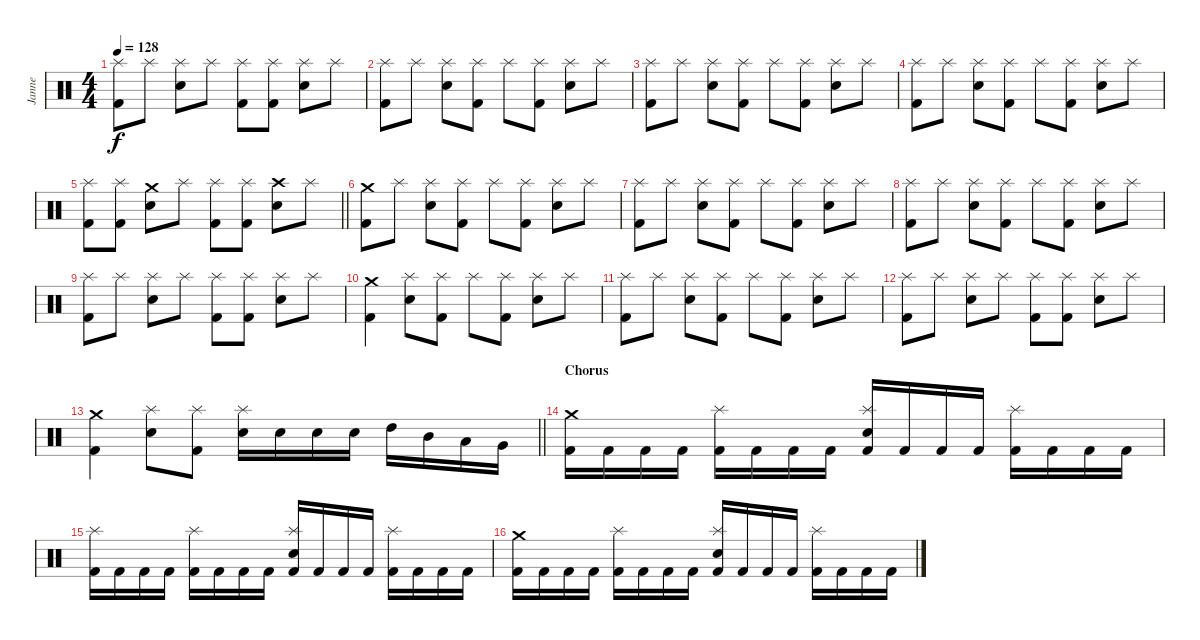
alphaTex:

\track ("Janne" "Janne") {instrument percussion}
\staff {score}
\articulation defaults
\ts (4 4)
\tempo 128
\clef neutral
\ks c
("Kick (hit) 2" "Splash (hit)").8{dy f} "Splash (hit)".8 ("Snare (hit) 2" "Splash (hit)").8 "Splash (hit)".8 ("Kick (hit) 2" "Splash (hit)").8 ("Kick (hit) 2" "Splash (hit)").8 ("Snare (hit) 2" "Splash (hit)").8 "Splash (hit)".8 |
("Kick (hit) 2" "Splash (hit)").8 "Splash (hit)".8 ("Snare (hit) 2" "Splash (hit)").8 ("Kick (hit) 2" "Splash (hit)").8 "Splash (hit)".8 ("Kick (hit) 2" "Splash (hit)").8 ("Snare (hit) 2" "Splash (hit)").8 "Splash (hit)".8 |
("Kick (hit) 2" "Splash (hit)").8 "Splash (hit)".8 ("Snare (hit) 2" "Splash (hit)").8 ("Kick (hit) 2" "Splash (hit)").8 "Splash (hit)".8 ("Kick (hit) 2" "Splash (hit)").8 ("Snare (hit) 2" "Splash (hit)").8 "Splash (hit)".8 |
("Kick (hit) 2" "Splash (hit)").8 "Splash (hit)".8 ("Snare (hit) 2" "Splash (hit)").8 ("Kick (hit) 2" "Splash (hit)").8 "Splash (hit)".8 ("Kick (hit) 2" "Splash (hit)").8 ("Snare (hit) 2" "Splash (hit)").8 "Splash (hit)".8 |
\barLineRight lightlight
("Kick (hit) 2" "Splash (hit)").8 ("Kick (hit) 2" "Splash (hit)").8 ("Snare (hit) 2" "Crash medium (hit)").8 "Splash (hit)".8 ("Kick (hit) 2" "Splash (hit)").8 ("Kick (hit) 2" "Splash (hit)").8 ("Snare (hit) 2" "Crash high (hit)").8 "Splash (hit)".8 |
\section ("" "")
("Kick (hit) 2" "Crash medium (hit)").8 "Splash (hit)".8 ("Snare (hit) 2" "Splash (hit)").8 ("Kick (hit) 2" "Splash (hit)").8 "Splash (hit)".8 ("Kick (hit) 2" "Splash (hit)").8 ("Snare (hit) 2" "Splash (hit)").8 "Splash (hit)".8 |
("Kick (hit) 2" "Splash (hit)").8 "Splash (hit)".8 ("Snare (hit) 2" "Splash (hit)").8 ("Kick (hit) 2" "Splash (hit)").8 "Splash (hit)".8 ("Kick (hit) 2" "Splash (hit)").8 ("Snare (hit) 2" "Splash (hit)").8 "Splash (hit)".8 |
("Kick (hit) 2" "Splash (hit)").8 "Splash (hit)".8 ("Snare (hit) 2" "Splash (hit)").8 ("Kick (hit) 2" "Splash (hit)").8 "Splash (hit)".8 ("Kick (hit) 2" "Splash (hit)").8 ("Snare (hit) 2" "Splash (hit)").8 "Splash (hit)".8 |
("Kick (hit) 2" "Splash (hit)").8 "Splash (hit)".8 ("Snare (hit) 2" "Splash (hit)").8 "Splash (hit)".8 ("Kick (hit) 2" "Splash (hit)").8 ("Kick (hit) 2" "Splash (hit)").8 ("Snare (hit) 2" "Splash (hit)").8 "Splash (hit)".8 |
("Kick (hit) 2" "Crash medium (hit)").4 ("Snare (hit) 2" "Splash (hit)").8 ("Kick (hit) 2" "Splash (hit)").8 "Splash (hit)".8 ("Kick (hit) 2" "Splash (hit)").8 ("Snare (hit) 2" "Splash (hit)").8 "Splash (hit)".8 |
("Kick (hit) 2" "Splash (hit)").8 "Splash (hit)".8 ("Snare (hit) 2" "Splash (hit)").8 ("Kick (hit) 2" "Splash (hit)").8 "Splash (hit)".8 ("Kick (hit) 2" "Splash (hit)").8 ("Snare (hit) 2" "Splash (hit)").8 "Splash (hit)".8 |
("Kick (hit) 2" "Splash (hit)").8 "Splash (hit)".8 ("Snare (hit) 2" "Splash (hit)").8 "Splash (hit)".8 ("Kick (hit) 2" "Splash (hit)").8 ("Kick (hit) 2" "Splash (hit)").8 ("Snare (hit) 2" "Splash (hit)").8 "Splash (hit)".8 |
\barLineRight lightlight
("Kick (hit) 2" "Crash medium (hit)").4 ("Snare (hit) 2" "Splash (hit)").8 ("Kick (hit) 2" "Splash (hit)").8 ("Snare (hit) 2" "Splash (hit)").16 "Snare (hit) 2".16 "Snare (hit) 2".16 "Snare (hit) 2".16 "High Tom (hit)".16 "Mid Tom (hit)".16 "Low Tom (hit)".16 "Very Low Tom (hit)".16 |
\section ("" "Chorus")
("Kick (hit) 2" "Crash medium (hit)").16 "Kick (hit) 2".16 "Kick (hit) 2".16 "Kick (hit) 2".16 ("Kick (hit) 2" "Splash (hit)").16 "Kick (hit) 2".16 "Kick (hit) 2".16 "Kick (hit) 2".16 ("Kick (hit) 2" "Snare (hit) 2" "Splash (hit)").16 "Kick (hit) 2".16 "Kick (hit) 2".16 "Kick (hit) 2".16 ("Kick (hit) 2" "Splash (hit)").16 "Kick (hit) 2".16 "Kick (hit) 2".16 "Kick (hit) 2".16 |
("Kick (hit) 2" "Splash (hit)").16 "Kick (hit) 2".16 "Kick (hit) 2".16 "Kick (hit) 2".16 ("Kick (hit) 2" "Splash (hit)").16 "Kick (hit) 2".16 "Kick (hit) 2".16 "Kick (hit) 2".16 ("Kick (hit) 2" "Snare (hit) 2" "Splash (hit)").16 "Kick (hit) 2".16 "Kick (hit) 2".16 "Kick (hit) 2".16 ("Kick (hit) 2" "Splash (hit)").16 "Kick (hit) 2".16 "Kick (hit) 2".16 "Kick (hit) 2".16 |
("Kick (hit) 2" "Crash medium (hit)").16 "Kick (hit) 2".16 "Kick (hit) 2".16 "Kick (hit) 2".16 ("Kick (hit) 2" "Splash (hit)").16 "Kick (hit) 2".16 "Kick (hit) 2".16 "Kick (hit) 2".16 ("Kick (hit) 2" "Snare (hit) 2" "Splash (hit)").16 "Kick (hit) 2".16 "Kick (hit) 2".16 "Kick (hit) 2".16 ("Kick (hit) 2" "Splash (hit)").16 "Kick (hit) 2".16 "Kick (hit) 2".16 "Kick (hit) 2".16
